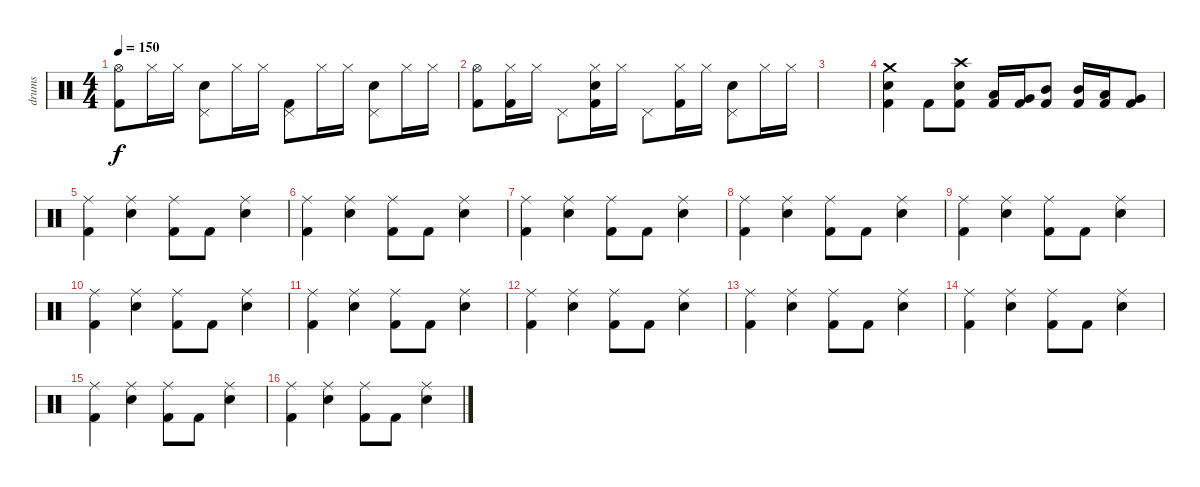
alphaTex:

\track ("drums" "drums") {instrument percussion}
\staff {score}
\articulation defaults
\ts (4 4)
\tempo 150
\clef neutral
\ks c
("Hi-Hat (open)" "Kick (hit) 2").8{dy f} "Hi-Hat (closed)".16 "Hi-Hat (closed)".16 ("Pedal Hi-Hat (hit)" "Snare (hit) 2").8 "Hi-Hat (closed)".16 "Hi-Hat (closed)".16 ("Pedal Hi-Hat (hit)" "Kick (hit) 2").8 "Hi-Hat (closed)".16 "Hi-Hat (closed)".16 ("Pedal Hi-Hat (hit)" "Snare (hit) 2").8 "Hi-Hat (closed)".16 "Hi-Hat (closed)".16 |
("Hi-Hat (open)" "Kick (hit) 2").8 ("Hi-Hat (closed)" "Kick (hit) 2").16 "Hi-Hat (closed)".16 "Pedal Hi-Hat (hit)".8 ("Hi-Hat (closed)" "Snare (hit) 2" "Kick (hit) 2").16 "Hi-Hat (closed)".16 "Pedal Hi-Hat (hit)".8 ("Hi-Hat (closed)" "Kick (hit) 2").16 "Hi-Hat (closed)".16 ("Pedal Hi-Hat (hit)" "Snare (hit) 2").8 "Hi-Hat (closed)".16 "Hi-Hat (closed)".16 |
|
("Crash medium (hit)" "Snare (hit) 2" "Kick (hit) 2").4 "Kick (hit) 2".8 ("Crash high (hit)" "Snare (hit) 2" "Kick (hit) 2").8 ("Low Tom (hit)" "Kick (hit) 2").16 ("Very Low Tom (hit)" "Kick (hit) 2").16 ("Mid Tom (hit)" "Kick (hit) 2").8 ("Mid Tom (hit)" "Kick (hit) 2").16 ("Low Tom (hit)" "Kick (hit) 2").16 ("Very Low Tom (hit)" "Kick (hit) 2").8 |
("Ride (middle)" "Kick (hit) 2").4 ("Ride (middle)" "Snare (hit) 2").4 ("Ride (middle)" "Kick (hit) 2").8 "Kick (hit) 2".8 ("Ride (middle)" "Snare (hit) 2").4 |
("Ride (middle)" "Kick (hit) 2").4 ("Ride (middle)" "Snare (hit) 2").4 ("Ride (middle)" "Kick (hit) 2").8 "Kick (hit) 2".8 ("Ride (middle)" "Snare (hit) 2").4 |
("Ride (middle)" "Kick (hit) 2").4 ("Ride (middle)" "Snare (hit) 2").4 ("Ride (middle)" "Kick (hit) 2").8 "Kick (hit) 2".8 ("Ride (middle)" "Snare (hit) 2").4 |
("Ride (middle)" "Kick (hit) 2").4 ("Ride (middle)" "Snare (hit) 2").4 ("Ride (middle)" "Kick (hit) 2").8 "Kick (hit) 2".8 ("Ride (middle)" "Snare (hit) 2").4 |
("Ride (middle)" "Kick (hit) 2").4 ("Ride (middle)" "Snare (hit) 2").4 ("Ride (middle)" "Kick (hit) 2").8 "Kick (hit) 2".8 ("Ride (middle)" "Snare (hit) 2").4 |
("Ride (middle)" "Kick (hit) 2").4 ("Ride (middle)" "Snare (hit) 2").4 ("Ride (middle)" "Kick (hit) 2").8 "Kick (hit) 2".8 ("Ride (middle)" "Snare (hit) 2").4 |
("Ride (middle)" "Kick (hit) 2").4 ("Ride (middle)" "Snare (hit) 2").4 ("Ride (middle)" "Kick (hit) 2").8 "Kick (hit) 2".8 ("Ride (middle)" "Snare (hit) 2").4 |
("Ride (middle)" "Kick (hit) 2").4 ("Ride (middle)" "Snare (hit) 2").4 ("Ride (middle)" "Kick (hit) 2").8 "Kick (hit) 2".8 ("Ride (middle)" "Snare (hit) 2").4 |
("Ride (middle)" "Kick (hit) 2").4 ("Ride (middle)" "Snare (hit) 2").4 ("Ride (middle)" "Kick (hit) 2").8 "Kick (hit) 2".8 ("Ride (middle)" "Snare (hit) 2").4 |
("Ride (middle)" "Kick (hit) 2").4 ("Ride (middle)" "Snare (hit) 2").4 ("Ride (middle)" "Kick (hit) 2").8 "Kick (hit) 2".8 ("Ride (middle)" "Snare (hit) 2").4 |
("Ride (middle)" "Kick (hit) 2").4 ("Ride (middle)" "Snare (hit) 2").4 ("Ride (middle)" "Kick (hit) 2").8 "Kick (hit) 2".8 ("Ride (middle)" "Snare (hit) 2").4 |
("Ride (middle)" "Kick (hit) 2").4 ("Ride (middle)" "Snare (hit) 2").4 ("Ride (middle)" "Kick (hit) 2").8 "Kick (hit) 2".8 ("Ride (middle)" "Snare (hit) 2").4
